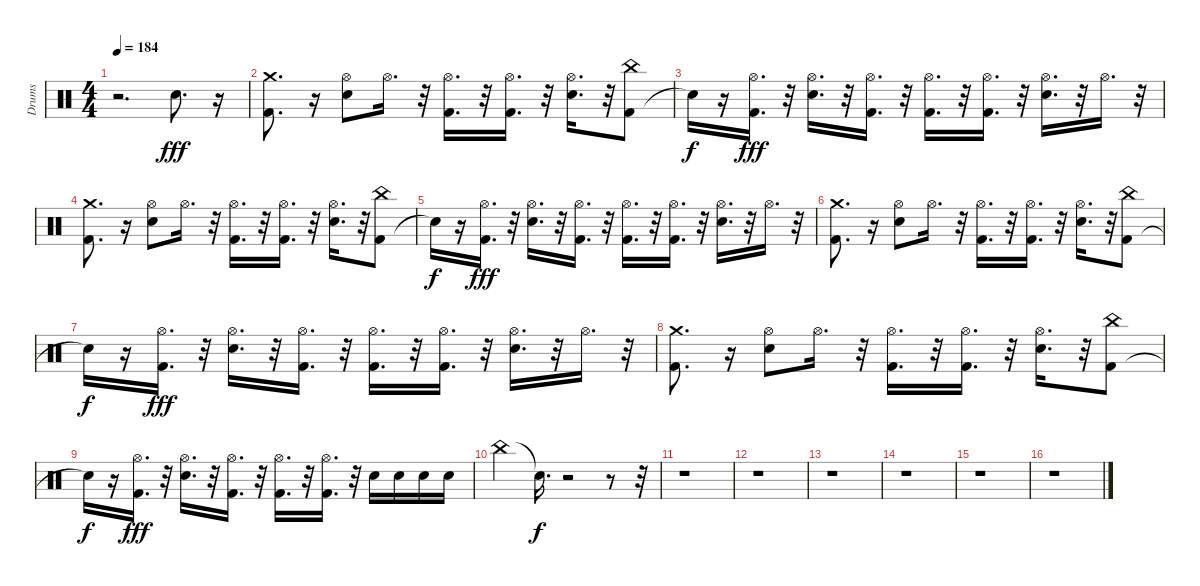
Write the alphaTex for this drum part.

\track ("Drums" "Drums") {instrument percussion}
\staff {score}
\articulation defaults
\ts (4 4)
\tempo 184
\clef neutral
\ks c
r.2{d dy fff} "Electric Snare (hit)".8{d} r.16 |
("Crash medium (hit)" "Kick (hit) 2").8{d} r.16 ("Electric Snare (hit)" "Hi-Hat (open)").8 "Hi-Hat (open)".16{d} r.32 ("Kick (hit) 2" "Hi-Hat (open)").16{d} r.32 ("Kick (hit) 2" "Hi-Hat (open)").16{d} r.32 ("Electric Snare (hit)" "Hi-Hat (open)").16{d} r.32 ("Kick (hit) 2" "China (hit)").8 |
"Snare (hit)"{t}.16{dy f} r.16 ("Kick (hit) 2" "Hi-Hat (open)").16{d dy fff} r.32 ("Electric Snare (hit)" "Hi-Hat (open)").16{d} r.32 ("Kick (hit) 2" "Hi-Hat (open)").16{d} r.32 ("Kick (hit) 2" "Hi-Hat (open)").16{d} r.32 ("Kick (hit) 2" "Hi-Hat (open)").16{d} r.32 ("Electric Snare (hit)" "Hi-Hat (open)").16{d} r.32 "Hi-Hat (open)".16{d} r.32 |
("Crash medium (hit)" "Kick (hit) 2").8{d} r.16 ("Electric Snare (hit)" "Hi-Hat (open)").8 "Hi-Hat (open)".16{d} r.32 ("Kick (hit) 2" "Hi-Hat (open)").16{d} r.32 ("Kick (hit) 2" "Hi-Hat (open)").16{d} r.32 ("Electric Snare (hit)" "Hi-Hat (open)").16{d} r.32 ("Kick (hit) 2" "China (hit)").8 |
"Snare (hit)"{t}.16{dy f} r.16 ("Kick (hit) 2" "Hi-Hat (open)").16{d dy fff} r.32 ("Electric Snare (hit)" "Hi-Hat (open)").16{d} r.32 ("Kick (hit) 2" "Hi-Hat (open)").16{d} r.32 ("Kick (hit) 2" "Hi-Hat (open)").16{d} r.32 ("Kick (hit) 2" "Hi-Hat (open)").16{d} r.32 ("Electric Snare (hit)" "Hi-Hat (open)").16{d} r.32 "Hi-Hat (open)".16{d} r.32 |
("Crash medium (hit)" "Kick (hit) 2").8{d} r.16 ("Electric Snare (hit)" "Hi-Hat (open)").8 "Hi-Hat (open)".16{d} r.32 ("Kick (hit) 2" "Hi-Hat (open)").16{d} r.32 ("Kick (hit) 2" "Hi-Hat (open)").16{d} r.32 ("Electric Snare (hit)" "Hi-Hat (open)").16{d} r.32 ("Kick (hit) 2" "China (hit)").8 |
"Snare (hit)"{t}.16{dy f} r.16 ("Kick (hit) 2" "Hi-Hat (open)").16{d dy fff} r.32 ("Electric Snare (hit)" "Hi-Hat (open)").16{d} r.32 ("Kick (hit) 2" "Hi-Hat (open)").16{d} r.32 ("Kick (hit) 2" "Hi-Hat (open)").16{d} r.32 ("Kick (hit) 2" "Hi-Hat (open)").16{d} r.32 ("Electric Snare (hit)" "Hi-Hat (open)").16{d} r.32 "Hi-Hat (open)".16{d} r.32 |
("Crash medium (hit)" "Kick (hit) 2").8{d} r.16 ("Electric Snare (hit)" "Hi-Hat (open)").8 "Hi-Hat (open)".16{d} r.32 ("Kick (hit) 2" "Hi-Hat (open)").16{d} r.32 ("Kick (hit) 2" "Hi-Hat (open)").16{d} r.32 ("Electric Snare (hit)" "Hi-Hat (open)").16{d} r.32 ("Kick (hit) 2" "China (hit)").8 |
"Snare (hit)"{t}.16{dy f} r.16 ("Kick (hit) 2" "Hi-Hat (open)").16{d dy fff} r.32 ("Electric Snare (hit)" "Hi-Hat (open)").16{d} r.32 ("Kick (hit) 2" "Hi-Hat (open)").16{d} r.32 ("Kick (hit) 2" "Hi-Hat (open)").16{d} r.32 ("Kick (hit) 2" "Hi-Hat (open)").16{d} r.32 "Electric Snare (hit)".16 "Electric Snare (hit)".16 "Electric Snare (hit)".16 "Electric Snare (hit)".16 |
"China (hit)".4 "Snare (hit)"{t}.16{d dy f} r.2 r.8 r.32 |
r.1 |
r.1 |
r.1 |
r.1 |
r.1 |
r.1
